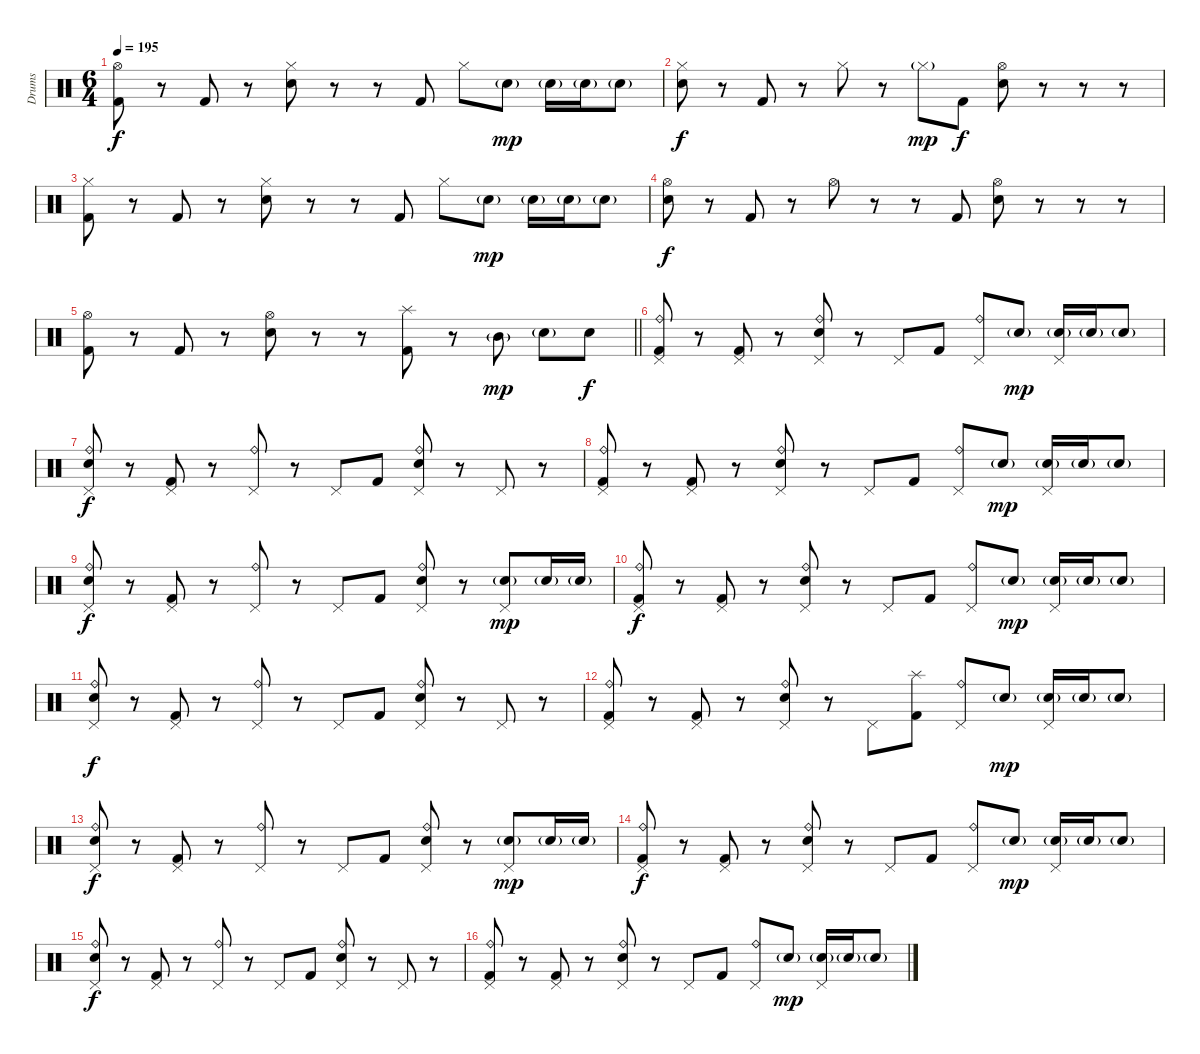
\track ("Drums" "Drums") {instrument percussion}
\staff {score}
\articulation defaults
\ts (6 4)
\tempo 195
\clef neutral
\ks c
("Hi-Hat (open)" "Kick (hit) 2").8{dy f} r.8 "Kick (hit) 2".8 r.8 ("Hi-Hat (closed)" "Electric Snare (hit)").8 r.8 r.8 "Kick (hit) 2".8 "Hi-Hat (closed)".8 "Electric Snare (hit)"{g}.8{dy mp} "Electric Snare (hit)"{g}.16 "Electric Snare (hit)"{g}.16 "Electric Snare (hit)"{g}.8 |
("Hi-Hat (closed)" "Electric Snare (hit)").8{dy f} r.8 "Kick (hit) 2".8 r.8 "Hi-Hat (closed)".8 r.8 "Hi-Hat (closed)"{g}.8{dy mp} "Kick (hit) 2".8{dy f} ("Hi-Hat (open)" "Electric Snare (hit)").8 r.8 r.8 r.8 |
("Hi-Hat (closed)" "Kick (hit) 2").8 r.8 "Kick (hit) 2".8 r.8 ("Hi-Hat (closed)" "Electric Snare (hit)").8 r.8 r.8 "Kick (hit) 2".8 "Hi-Hat (closed)".8 "Electric Snare (hit)"{g}.8{dy mp} "Electric Snare (hit)"{g}.16 "Electric Snare (hit)"{g}.16 "Electric Snare (hit)"{g}.8 |
("Hi-Hat (open)" "Electric Snare (hit)").8{dy f} r.8 "Kick (hit) 2".8 r.8 "Hi-Hat (open)".8 r.8 r.8 "Kick (hit) 2".8 ("Hi-Hat (open)" "Electric Snare (hit)").8 r.8 r.8 r.8 |
\barLineRight lightlight
("Hi-Hat (open)" "Kick (hit) 2").8 r.8 "Kick (hit) 2".8 r.8 ("Hi-Hat (open)" "Electric Snare (hit)").8 r.8 r.8 ("Splash (hit)" "Kick (hit) 2").8 r.8 "Mid Tom (hit)"{g}.8{dy mp} "Electric Snare (hit)"{g}.8 "Electric Snare (hit)".8{dy f} |
\section ("" "")
("Ride (bell)" "Pedal Hi-Hat (hit)" "Kick (hit) 2").8 r.8 ("Pedal Hi-Hat (hit)" "Kick (hit) 2").8 r.8 ("Ride (bell)" "Pedal Hi-Hat (hit)" "Electric Snare (hit)").8 r.8 "Pedal Hi-Hat (hit)".8 "Kick (hit) 2".8 ("Ride (bell)" "Pedal Hi-Hat (hit)").8 "Electric Snare (hit)"{g}.8{dy mp} ("Pedal Hi-Hat (hit)" "Electric Snare (hit)"{g}).16 "Electric Snare (hit)"{g}.16 "Electric Snare (hit)"{g}.8 |
("Ride (bell)" "Pedal Hi-Hat (hit)" "Electric Snare (hit)").8{dy f} r.8 ("Pedal Hi-Hat (hit)" "Kick (hit) 2").8 r.8 ("Ride (bell)" "Pedal Hi-Hat (hit)").8 r.8 "Pedal Hi-Hat (hit)".8 "Kick (hit) 2".8 ("Ride (bell)" "Pedal Hi-Hat (hit)" "Electric Snare (hit)").8 r.8 "Pedal Hi-Hat (hit)".8 r.8 |
("Ride (bell)" "Pedal Hi-Hat (hit)" "Kick (hit) 2").8 r.8 ("Pedal Hi-Hat (hit)" "Kick (hit) 2").8 r.8 ("Ride (bell)" "Pedal Hi-Hat (hit)" "Electric Snare (hit)").8 r.8 "Pedal Hi-Hat (hit)".8 "Kick (hit) 2".8 ("Ride (bell)" "Pedal Hi-Hat (hit)").8 "Electric Snare (hit)"{g}.8{dy mp} ("Pedal Hi-Hat (hit)" "Electric Snare (hit)"{g}).16 "Electric Snare (hit)"{g}.16 "Electric Snare (hit)"{g}.8 |
("Ride (bell)" "Pedal Hi-Hat (hit)" "Electric Snare (hit)").8{dy f} r.8 ("Pedal Hi-Hat (hit)" "Kick (hit) 2").8 r.8 ("Ride (bell)" "Pedal Hi-Hat (hit)").8 r.8 "Pedal Hi-Hat (hit)".8 "Kick (hit) 2".8 ("Ride (bell)" "Pedal Hi-Hat (hit)" "Electric Snare (hit)").8 r.8 ("Pedal Hi-Hat (hit)" "Electric Snare (hit)"{g}).8{dy mp} "Electric Snare (hit)"{g}.16 "Electric Snare (hit)"{g}.16 |
("Ride (bell)" "Pedal Hi-Hat (hit)" "Kick (hit) 2").8{dy f} r.8 ("Pedal Hi-Hat (hit)" "Kick (hit) 2").8 r.8 ("Ride (bell)" "Pedal Hi-Hat (hit)" "Electric Snare (hit)").8 r.8 "Pedal Hi-Hat (hit)".8 "Kick (hit) 2".8 ("Ride (bell)" "Pedal Hi-Hat (hit)").8 "Electric Snare (hit)"{g}.8{dy mp} ("Pedal Hi-Hat (hit)" "Electric Snare (hit)"{g}).16 "Electric Snare (hit)"{g}.16 "Electric Snare (hit)"{g}.8 |
("Ride (bell)" "Pedal Hi-Hat (hit)" "Electric Snare (hit)").8{dy f} r.8 ("Pedal Hi-Hat (hit)" "Kick (hit) 2").8 r.8 ("Ride (bell)" "Pedal Hi-Hat (hit)").8 r.8 "Pedal Hi-Hat (hit)".8 "Kick (hit) 2".8 ("Ride (bell)" "Pedal Hi-Hat (hit)" "Electric Snare (hit)").8 r.8 "Pedal Hi-Hat (hit)".8 r.8 |
("Ride (bell)" "Pedal Hi-Hat (hit)" "Kick (hit) 2").8 r.8 ("Pedal Hi-Hat (hit)" "Kick (hit) 2").8 r.8 ("Ride (bell)" "Pedal Hi-Hat (hit)" "Electric Snare (hit)").8 r.8 "Pedal Hi-Hat (hit)".8 ("Splash (hit)" "Kick (hit) 2").8 ("Ride (bell)" "Pedal Hi-Hat (hit)").8 "Electric Snare (hit)"{g}.8{dy mp} ("Pedal Hi-Hat (hit)" "Electric Snare (hit)"{g}).16 "Electric Snare (hit)"{g}.16 "Electric Snare (hit)"{g}.8 |
("Ride (bell)" "Pedal Hi-Hat (hit)" "Electric Snare (hit)").8{dy f} r.8 ("Pedal Hi-Hat (hit)" "Kick (hit) 2").8 r.8 ("Ride (bell)" "Pedal Hi-Hat (hit)").8 r.8 "Pedal Hi-Hat (hit)".8 "Kick (hit) 2".8 ("Ride (bell)" "Pedal Hi-Hat (hit)" "Electric Snare (hit)").8 r.8 ("Pedal Hi-Hat (hit)" "Electric Snare (hit)"{g}).8{dy mp} "Electric Snare (hit)"{g}.16 "Electric Snare (hit)"{g}.16 |
("Ride (bell)" "Pedal Hi-Hat (hit)" "Kick (hit) 2").8{dy f} r.8 ("Pedal Hi-Hat (hit)" "Kick (hit) 2").8 r.8 ("Ride (bell)" "Pedal Hi-Hat (hit)" "Electric Snare (hit)").8 r.8 "Pedal Hi-Hat (hit)".8 "Kick (hit) 2".8 ("Ride (bell)" "Pedal Hi-Hat (hit)").8 "Electric Snare (hit)"{g}.8{dy mp} ("Pedal Hi-Hat (hit)" "Electric Snare (hit)"{g}).16 "Electric Snare (hit)"{g}.16 "Electric Snare (hit)"{g}.8 |
("Ride (bell)" "Pedal Hi-Hat (hit)" "Electric Snare (hit)").8{dy f} r.8 ("Pedal Hi-Hat (hit)" "Kick (hit) 2").8 r.8 ("Ride (bell)" "Pedal Hi-Hat (hit)").8 r.8 "Pedal Hi-Hat (hit)".8 "Kick (hit) 2".8 ("Ride (bell)" "Pedal Hi-Hat (hit)" "Electric Snare (hit)").8 r.8 "Pedal Hi-Hat (hit)".8 r.8 |
("Ride (bell)" "Pedal Hi-Hat (hit)" "Kick (hit) 2").8 r.8 ("Pedal Hi-Hat (hit)" "Kick (hit) 2").8 r.8 ("Ride (bell)" "Pedal Hi-Hat (hit)" "Electric Snare (hit)").8 r.8 "Pedal Hi-Hat (hit)".8 "Kick (hit) 2".8 ("Ride (bell)" "Pedal Hi-Hat (hit)").8 "Electric Snare (hit)"{g}.8{dy mp} ("Pedal Hi-Hat (hit)" "Electric Snare (hit)"{g}).16 "Electric Snare (hit)"{g}.16 "Electric Snare (hit)"{g}.8
